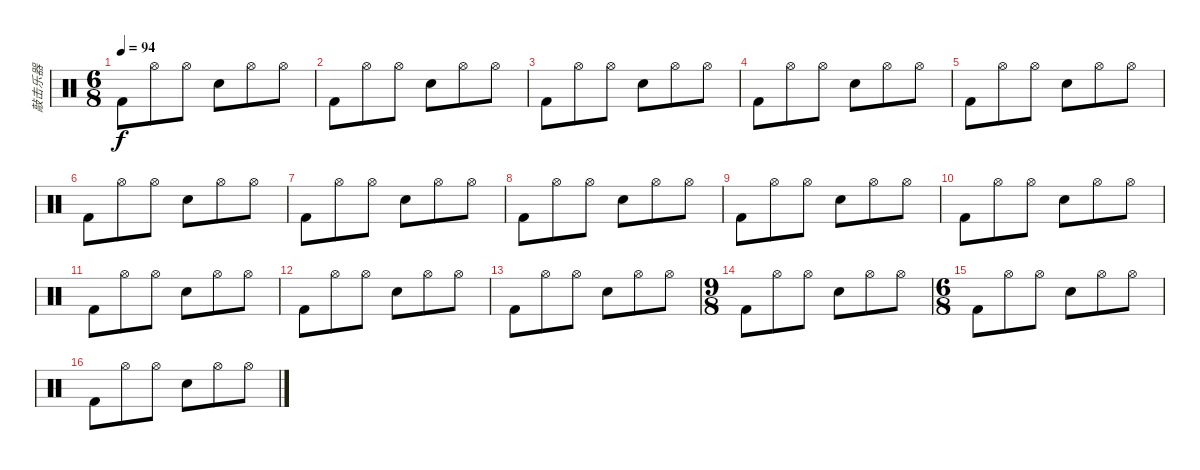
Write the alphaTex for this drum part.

\track ("敲击乐器" "敲击乐器") {instrument percussion}
\staff {score}
\articulation defaults
\ts (6 8)
\tempo 94
\clef neutral
\ks c "Kick (hit) 2".8{dy f} "Hi-Hat (open)".8 "Hi-Hat (open)".8 "Electric Snare (hit)".8 "Hi-Hat (open)".8 "Hi-Hat (open)".8
|
"Kick (hit) 2".8 "Hi-Hat (open)".8 "Hi-Hat (open)".8 "Electric Snare (hit)".8 "Hi-Hat (open)".8 "Hi-Hat (open)".8 |
"Kick (hit) 2".8 "Hi-Hat (open)".8 "Hi-Hat (open)".8 "Electric Snare (hit)".8 "Hi-Hat (open)".8 "Hi-Hat (open)".8 |
"Kick (hit) 2".8 "Hi-Hat (open)".8 "Hi-Hat (open)".8 "Electric Snare (hit)".8 "Hi-Hat (open)".8 "Hi-Hat (open)".8 |
"Kick (hit) 2".8 "Hi-Hat (open)".8 "Hi-Hat (open)".8 "Electric Snare (hit)".8 "Hi-Hat (open)".8 "Hi-Hat (open)".8 |
"Kick (hit) 2".8 "Hi-Hat (open)".8 "Hi-Hat (open)".8 "Electric Snare (hit)".8 "Hi-Hat (open)".8 "Hi-Hat (open)".8 |
"Kick (hit) 2".8 "Hi-Hat (open)".8 "Hi-Hat (open)".8 "Electric Snare (hit)".8 "Hi-Hat (open)".8 "Hi-Hat (open)".8 |
"Kick (hit) 2".8 "Hi-Hat (open)".8 "Hi-Hat (open)".8 "Electric Snare (hit)".8 "Hi-Hat (open)".8 "Hi-Hat (open)".8 |
"Kick (hit) 2".8 "Hi-Hat (open)".8 "Hi-Hat (open)".8 "Electric Snare (hit)".8 "Hi-Hat (open)".8 "Hi-Hat (open)".8 |
"Kick (hit) 2".8 "Hi-Hat (open)".8 "Hi-Hat (open)".8 "Electric Snare (hit)".8 "Hi-Hat (open)".8 "Hi-Hat (open)".8 |
"Kick (hit) 2".8 "Hi-Hat (open)".8 "Hi-Hat (open)".8 "Electric Snare (hit)".8 "Hi-Hat (open)".8 "Hi-Hat (open)".8 |
"Kick (hit) 2".8 "Hi-Hat (open)".8 "Hi-Hat (open)".8 "Electric Snare (hit)".8 "Hi-Hat (open)".8 "Hi-Hat (open)".8 |
"Kick (hit) 2".8 "Hi-Hat (open)".8 "Hi-Hat (open)".8 "Electric Snare (hit)".8 "Hi-Hat (open)".8 "Hi-Hat (open)".8 |
\ts (9 8)
"Kick (hit) 2".8 "Hi-Hat (open)".8 "Hi-Hat (open)".8 "Electric Snare (hit)".8 "Hi-Hat (open)".8 "Hi-Hat (open)".8 |
\ts (6 8)
"Kick (hit) 2".8 "Hi-Hat (open)".8 "Hi-Hat (open)".8 "Electric Snare (hit)".8 "Hi-Hat (open)".8 "Hi-Hat (open)".8 |
"Kick (hit) 2".8 "Hi-Hat (open)".8 "Hi-Hat (open)".8 "Electric Snare (hit)".8 "Hi-Hat (open)".8 "Hi-Hat (open)".8
